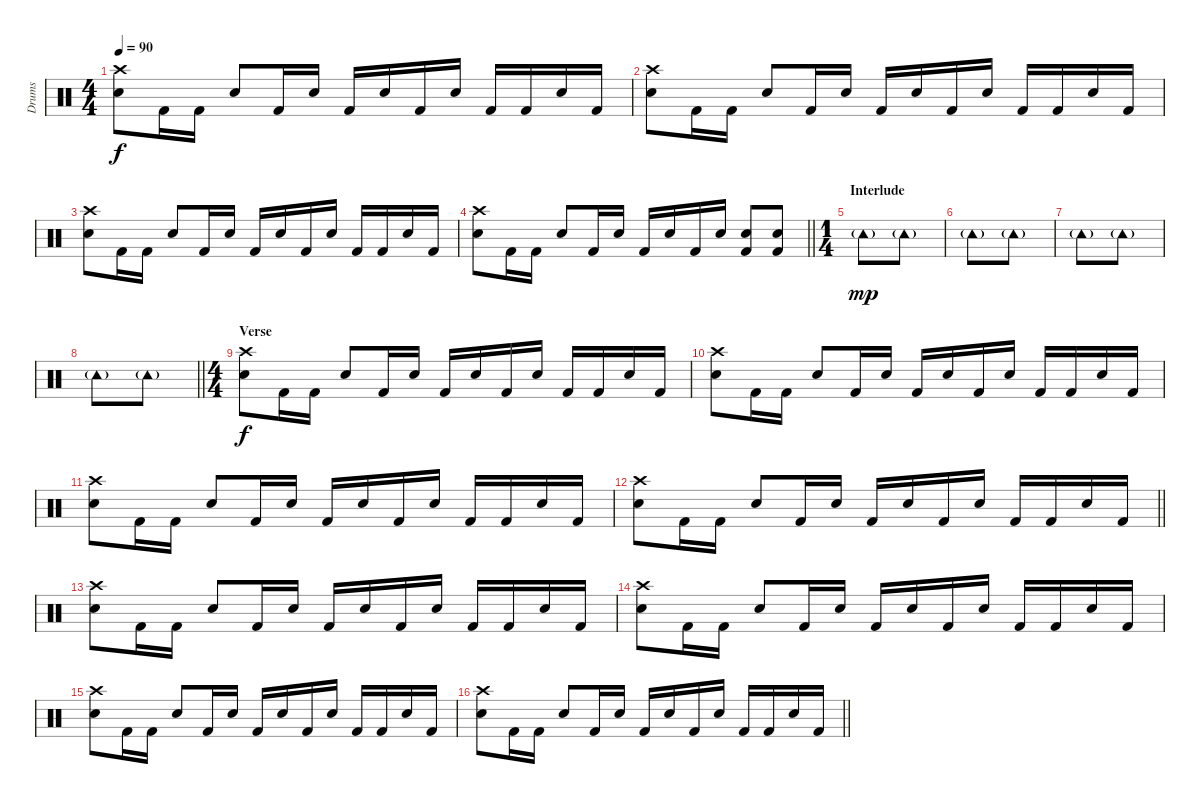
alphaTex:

\track ("Drums" "Drums") {instrument percussion}
\staff {score}
\articulation defaults
\ts (4 4)
\tempo 90
\clef neutral
\ks c
("Electric Snare (hit)" "Crash high (hit)").8{dy f} "Kick (hit) 2".16 "Kick (hit) 2".16 "Electric Snare (hit)".8 "Kick (hit) 2".16 "Electric Snare (hit)".16 "Kick (hit) 2".16 "Electric Snare (hit)".16 "Kick (hit) 2".16 "Electric Snare (hit)".16 "Kick (hit) 2".16 "Kick (hit) 2".16 "Electric Snare (hit)".16 "Kick (hit) 2".16 |
("Electric Snare (hit)" "Crash high (hit)").8 "Kick (hit) 2".16 "Kick (hit) 2".16 "Electric Snare (hit)".8 "Kick (hit) 2".16 "Electric Snare (hit)".16 "Kick (hit) 2".16 "Electric Snare (hit)".16 "Kick (hit) 2".16 "Electric Snare (hit)".16 "Kick (hit) 2".16 "Kick (hit) 2".16 "Electric Snare (hit)".16 "Kick (hit) 2".16 |
("Electric Snare (hit)" "Crash high (hit)").8 "Kick (hit) 2".16 "Kick (hit) 2".16 "Electric Snare (hit)".8 "Kick (hit) 2".16 "Electric Snare (hit)".16 "Kick (hit) 2".16 "Electric Snare (hit)".16 "Kick (hit) 2".16 "Electric Snare (hit)".16 "Kick (hit) 2".16 "Kick (hit) 2".16 "Electric Snare (hit)".16 "Kick (hit) 2".16 |
\barLineRight lightlight
("Electric Snare (hit)" "Crash high (hit)").8 "Kick (hit) 2".16 "Kick (hit) 2".16 "Electric Snare (hit)".8 "Kick (hit) 2".16 "Electric Snare (hit)".16 "Kick (hit) 2".16 "Electric Snare (hit)".16 "Kick (hit) 2".16 "Electric Snare (hit)".16 ("Kick (hit) 2" "Electric Snare (hit)").8 ("Kick (hit) 2" "Electric Snare (hit)").8 |
\ts (1 4)
\section ("" "Interlude")
"Tambourine (hit)"{g}.8{dy mp} "Tambourine (hit)"{g}.8 |
"Tambourine (hit)"{g}.8 "Tambourine (hit)"{g}.8 |
"Tambourine (hit)"{g}.8 "Tambourine (hit)"{g}.8 |
\barLineRight lightlight "Tambourine (hit)"{g}.8 "Tambourine (hit)"{g}.8
|
\ts (4 4)
\section ("" "Verse")
("Electric Snare (hit)" "Crash high (hit)").8{dy f} "Kick (hit) 2".16 "Kick (hit) 2".16 "Electric Snare (hit)".8 "Kick (hit) 2".16 "Electric Snare (hit)".16 "Kick (hit) 2".16 "Electric Snare (hit)".16 "Kick (hit) 2".16 "Electric Snare (hit)".16 "Kick (hit) 2".16 "Kick (hit) 2".16 "Electric Snare (hit)".16 "Kick (hit) 2".16 |
("Electric Snare (hit)" "Crash high (hit)").8 "Kick (hit) 2".16 "Kick (hit) 2".16 "Electric Snare (hit)".8 "Kick (hit) 2".16 "Electric Snare (hit)".16 "Kick (hit) 2".16 "Electric Snare (hit)".16 "Kick (hit) 2".16 "Electric Snare (hit)".16 "Kick (hit) 2".16 "Kick (hit) 2".16 "Electric Snare (hit)".16 "Kick (hit) 2".16 |
("Electric Snare (hit)" "Crash high (hit)").8 "Kick (hit) 2".16 "Kick (hit) 2".16 "Electric Snare (hit)".8 "Kick (hit) 2".16 "Electric Snare (hit)".16 "Kick (hit) 2".16 "Electric Snare (hit)".16 "Kick (hit) 2".16 "Electric Snare (hit)".16 "Kick (hit) 2".16 "Kick (hit) 2".16 "Electric Snare (hit)".16 "Kick (hit) 2".16 |
\barLineRight lightlight
("Electric Snare (hit)" "Crash high (hit)").8 "Kick (hit) 2".16 "Kick (hit) 2".16 "Electric Snare (hit)".8 "Kick (hit) 2".16 "Electric Snare (hit)".16 "Kick (hit) 2".16 "Electric Snare (hit)".16 "Kick (hit) 2".16 "Electric Snare (hit)".16 "Kick (hit) 2".16 "Kick (hit) 2".16 "Electric Snare (hit)".16 "Kick (hit) 2".16 |
("Electric Snare (hit)" "Crash high (hit)").8 "Kick (hit) 2".16 "Kick (hit) 2".16 "Electric Snare (hit)".8 "Kick (hit) 2".16 "Electric Snare (hit)".16 "Kick (hit) 2".16 "Electric Snare (hit)".16 "Kick (hit) 2".16 "Electric Snare (hit)".16 "Kick (hit) 2".16 "Kick (hit) 2".16 "Electric Snare (hit)".16 "Kick (hit) 2".16 |
("Electric Snare (hit)" "Crash high (hit)").8 "Kick (hit) 2".16 "Kick (hit) 2".16 "Electric Snare (hit)".8 "Kick (hit) 2".16 "Electric Snare (hit)".16 "Kick (hit) 2".16 "Electric Snare (hit)".16 "Kick (hit) 2".16 "Electric Snare (hit)".16 "Kick (hit) 2".16 "Kick (hit) 2".16 "Electric Snare (hit)".16 "Kick (hit) 2".16 |
("Electric Snare (hit)" "Crash high (hit)").8 "Kick (hit) 2".16 "Kick (hit) 2".16 "Electric Snare (hit)".8 "Kick (hit) 2".16 "Electric Snare (hit)".16 "Kick (hit) 2".16 "Electric Snare (hit)".16 "Kick (hit) 2".16 "Electric Snare (hit)".16 "Kick (hit) 2".16 "Kick (hit) 2".16 "Electric Snare (hit)".16 "Kick (hit) 2".16 |
\barLineRight lightlight
("Electric Snare (hit)" "Crash high (hit)").8 "Kick (hit) 2".16 "Kick (hit) 2".16 "Electric Snare (hit)".8 "Kick (hit) 2".16 "Electric Snare (hit)".16 "Kick (hit) 2".16 "Electric Snare (hit)".16 "Kick (hit) 2".16 "Electric Snare (hit)".16 "Kick (hit) 2".16 "Kick (hit) 2".16 "Electric Snare (hit)".16 "Kick (hit) 2".16
